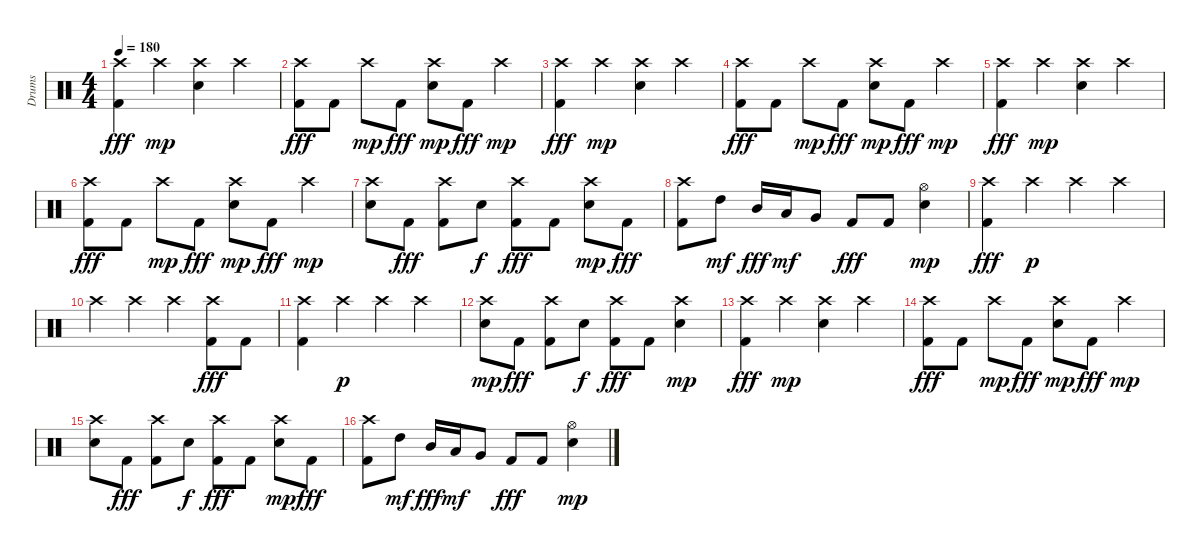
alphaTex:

\track ("Drums" "Drums") {instrument percussion}
\staff {score}
\articulation defaults
\ts (4 4)
\tempo 180
\clef neutral
\ks c
("Crash high (hit)" "Kick (hit) 2").4{dy fff} "Crash high (hit)".4{dy mp} ("Crash high (hit)" "Electric Snare (hit)").4 "Crash high (hit)".4 |
("Crash high (hit)" "Kick (hit) 2").8{dy fff} "Kick (hit) 2".8 "Crash high (hit)".8{dy mp} "Kick (hit) 2".8{dy fff} ("Crash high (hit)" "Electric Snare (hit)").8{dy mp} "Kick (hit) 2".8{dy fff} "Crash high (hit)".4{dy mp} |
("Crash high (hit)" "Kick (hit) 2").4{dy fff} "Crash high (hit)".4{dy mp} ("Crash high (hit)" "Electric Snare (hit)").4 "Crash high (hit)".4 |
("Crash high (hit)" "Kick (hit) 2").8{dy fff} "Kick (hit) 2".8 "Crash high (hit)".8{dy mp} "Kick (hit) 2".8{dy fff} ("Crash high (hit)" "Electric Snare (hit)").8{dy mp} "Kick (hit) 2".8{dy fff} "Crash high (hit)".4{dy mp} |
("Crash high (hit)" "Kick (hit) 2").4{dy fff} "Crash high (hit)".4{dy mp} ("Crash high (hit)" "Electric Snare (hit)").4 "Crash high (hit)".4 |
("Crash high (hit)" "Kick (hit) 2").8{dy fff} "Kick (hit) 2".8 "Crash high (hit)".8{dy mp} "Kick (hit) 2".8{dy fff} ("Crash high (hit)" "Electric Snare (hit)").8{dy mp} "Kick (hit) 2".8{dy fff} "Crash high (hit)".4{dy mp} |
("Crash high (hit)" "Electric Snare (hit)").8 "Kick (hit) 2".8{dy fff} ("Crash high (hit)" "Kick (hit) 2").8 "Electric Snare (hit)".8{dy f} ("Crash high (hit)" "Kick (hit) 2").8{dy fff} "Kick (hit) 2".8 ("Crash high (hit)" "Electric Snare (hit)").8{dy mp} "Kick (hit) 2".8{dy fff} |
("Crash high (hit)" "Kick (hit) 2").8 "High Tom (hit)".8{dy mf} "Mid Tom (hit)".16{dy fff} "Low Tom (hit)".16{dy mf} "Very Low Tom (hit)".8 "Kick (hit) 2".8{dy fff} "Kick (hit) 2".8 ("Hi-Hat (open)" "Electric Snare (hit)").4{dy mp} |
("Crash high (hit)" "Kick (hit) 2").4{dy fff} "Crash high (hit)".4{dy p} "Crash high (hit)".4 "Crash high (hit)".4 |
"Crash high (hit)".4 "Crash high (hit)".4 "Crash high (hit)".4 ("Crash high (hit)" "Kick (hit) 2").8{dy fff} "Kick (hit) 2".8 |
("Crash high (hit)" "Kick (hit) 2").4 "Crash high (hit)".4{dy p} "Crash high (hit)".4 "Crash high (hit)".4 |
("Crash high (hit)" "Electric Snare (hit)").8{dy mp} "Kick (hit) 2".8{dy fff} ("Crash high (hit)" "Kick (hit) 2").8 "Electric Snare (hit)".8{dy f} ("Crash high (hit)" "Kick (hit) 2").8{dy fff} "Kick (hit) 2".8 ("Crash high (hit)" "Electric Snare (hit)").4{dy mp} |
("Crash high (hit)" "Kick (hit) 2").4{dy fff} "Crash high (hit)".4{dy mp} ("Crash high (hit)" "Electric Snare (hit)").4 "Crash high (hit)".4 |
("Crash high (hit)" "Kick (hit) 2").8{dy fff} "Kick (hit) 2".8 "Crash high (hit)".8{dy mp} "Kick (hit) 2".8{dy fff} ("Crash high (hit)" "Electric Snare (hit)").8{dy mp} "Kick (hit) 2".8{dy fff} "Crash high (hit)".4{dy mp} |
("Crash high (hit)" "Electric Snare (hit)").8 "Kick (hit) 2".8{dy fff} ("Crash high (hit)" "Kick (hit) 2").8 "Electric Snare (hit)".8{dy f} ("Crash high (hit)" "Kick (hit) 2").8{dy fff} "Kick (hit) 2".8 ("Crash high (hit)" "Electric Snare (hit)").8{dy mp} "Kick (hit) 2".8{dy fff} |
("Crash high (hit)" "Kick (hit) 2").8 "High Tom (hit)".8{dy mf} "Mid Tom (hit)".16{dy fff} "Low Tom (hit)".16{dy mf} "Very Low Tom (hit)".8 "Kick (hit) 2".8{dy fff} "Kick (hit) 2".8 ("Hi-Hat (open)" "Electric Snare (hit)").4{dy mp}
